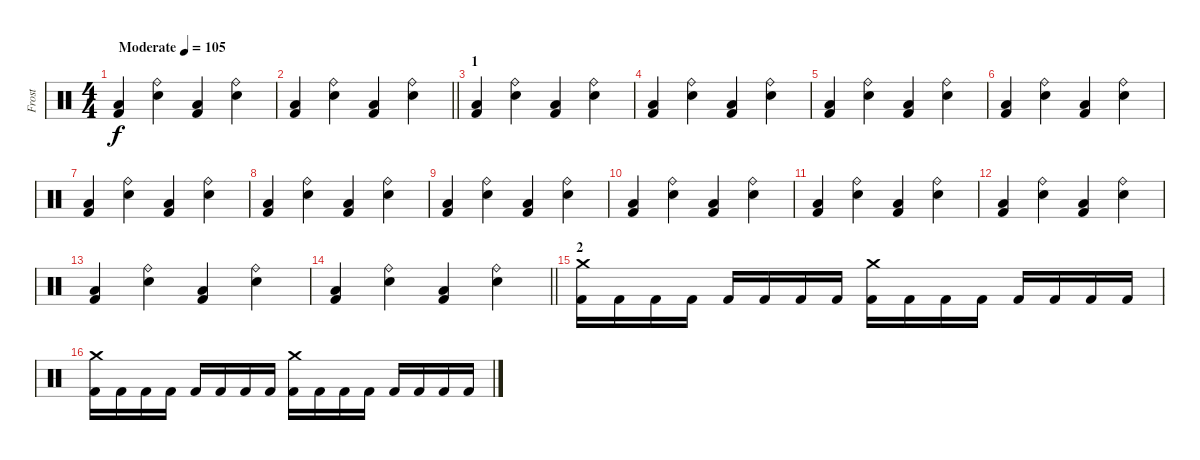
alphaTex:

\track ("Frost" "Frost") {instrument percussion}
\staff {score}
\articulation defaults
\ts (4 4)
\tempo (105 "Moderate")
\clef neutral
\ks c
("Low Tom (hit)" "Kick (hit) 2").4{dy f volume 8} ("Ride (bell)" "Electric Snare (hit)").4{volume 16} ("Low Tom (hit)" "Kick (hit) 2").4 ("Ride (bell)" "Electric Snare (hit)").4 |
\barLineRight lightlight
("Low Tom (hit)" "Kick (hit) 2").4 ("Ride (bell)" "Electric Snare (hit)").4 ("Low Tom (hit)" "Kick (hit) 2").4 ("Ride (bell)" "Electric Snare (hit)").4 |
\section ("" "1")
("Low Tom (hit)" "Kick (hit) 2").4 ("Ride (bell)" "Electric Snare (hit)").4 ("Low Tom (hit)" "Kick (hit) 2").4 ("Ride (bell)" "Electric Snare (hit)").4 |
("Low Tom (hit)" "Kick (hit) 2").4 ("Ride (bell)" "Electric Snare (hit)").4 ("Low Tom (hit)" "Kick (hit) 2").4 ("Ride (bell)" "Electric Snare (hit)").4 |
("Low Tom (hit)" "Kick (hit) 2").4 ("Ride (bell)" "Electric Snare (hit)").4 ("Low Tom (hit)" "Kick (hit) 2").4 ("Ride (bell)" "Electric Snare (hit)").4 |
("Low Tom (hit)" "Kick (hit) 2").4 ("Ride (bell)" "Electric Snare (hit)").4 ("Low Tom (hit)" "Kick (hit) 2").4 ("Ride (bell)" "Electric Snare (hit)").4 |
("Low Tom (hit)" "Kick (hit) 2").4 ("Ride (bell)" "Electric Snare (hit)").4 ("Low Tom (hit)" "Kick (hit) 2").4 ("Ride (bell)" "Electric Snare (hit)").4 |
("Low Tom (hit)" "Kick (hit) 2").4 ("Ride (bell)" "Electric Snare (hit)").4 ("Low Tom (hit)" "Kick (hit) 2").4 ("Ride (bell)" "Electric Snare (hit)").4 |
("Low Tom (hit)" "Kick (hit) 2").4 ("Ride (bell)" "Electric Snare (hit)").4 ("Low Tom (hit)" "Kick (hit) 2").4 ("Ride (bell)" "Electric Snare (hit)").4 |
("Low Tom (hit)" "Kick (hit) 2").4 ("Ride (bell)" "Electric Snare (hit)").4 ("Low Tom (hit)" "Kick (hit) 2").4 ("Ride (bell)" "Electric Snare (hit)").4 |
("Low Tom (hit)" "Kick (hit) 2").4 ("Ride (bell)" "Electric Snare (hit)").4 ("Low Tom (hit)" "Kick (hit) 2").4 ("Ride (bell)" "Electric Snare (hit)").4 |
("Low Tom (hit)" "Kick (hit) 2").4 ("Ride (bell)" "Electric Snare (hit)").4 ("Low Tom (hit)" "Kick (hit) 2").4 ("Ride (bell)" "Electric Snare (hit)").4 |
("Low Tom (hit)" "Kick (hit) 2").4 ("Ride (bell)" "Electric Snare (hit)").4 ("Low Tom (hit)" "Kick (hit) 2").4 ("Ride (bell)" "Electric Snare (hit)").4 |
\barLineRight lightlight
("Low Tom (hit)" "Kick (hit) 2").4 ("Ride (bell)" "Electric Snare (hit)").4 ("Low Tom (hit)" "Kick (hit) 2").4 ("Ride (bell)" "Electric Snare (hit)").4 |
\section ("" "2")
("Crash medium (hit)" "Kick (hit) 2").16 "Kick (hit) 2".16 "Kick (hit) 2".16 "Kick (hit) 2".16 "Kick (hit) 2".16 "Kick (hit) 2".16 "Kick (hit) 2".16 "Kick (hit) 2".16 ("Crash medium (hit)" "Kick (hit) 2").16 "Kick (hit) 2".16 "Kick (hit) 2".16 "Kick (hit) 2".16 "Kick (hit) 2".16 "Kick (hit) 2".16 "Kick (hit) 2".16 "Kick (hit) 2".16 |
("Crash medium (hit)" "Kick (hit) 2").16 "Kick (hit) 2".16 "Kick (hit) 2".16 "Kick (hit) 2".16 "Kick (hit) 2".16 "Kick (hit) 2".16 "Kick (hit) 2".16 "Kick (hit) 2".16 ("Crash medium (hit)" "Kick (hit) 2").16 "Kick (hit) 2".16 "Kick (hit) 2".16 "Kick (hit) 2".16 "Kick (hit) 2".16 "Kick (hit) 2".16 "Kick (hit) 2".16 "Kick (hit) 2".16
